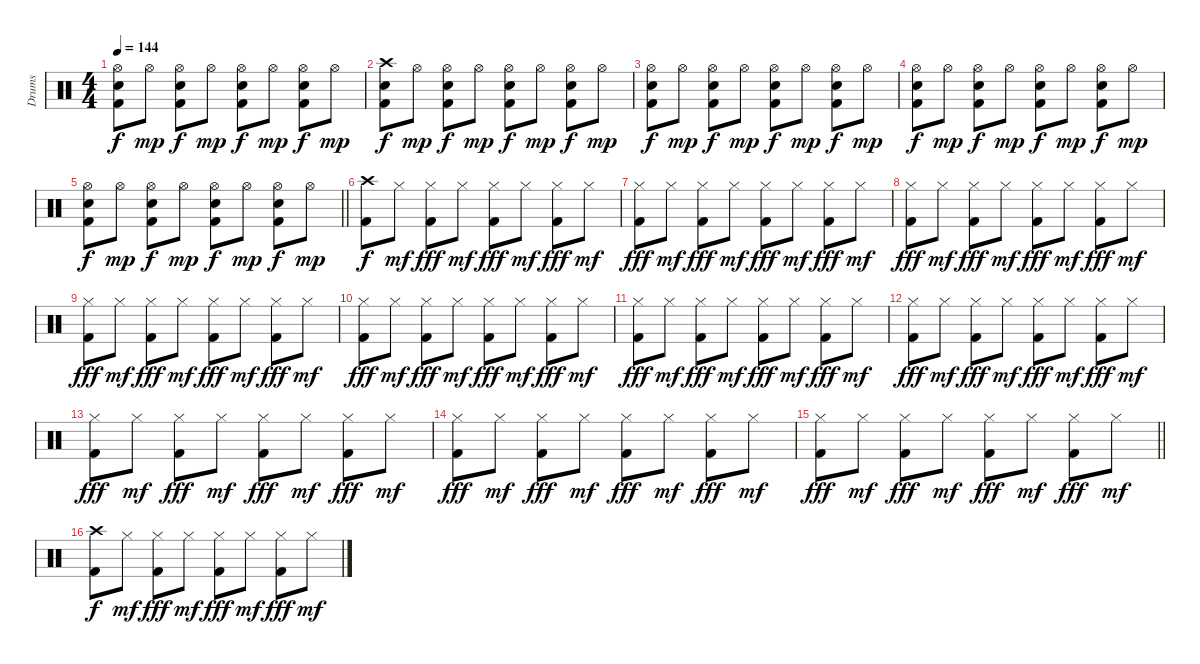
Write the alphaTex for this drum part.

\track ("Drums" "Drums") {instrument percussion}
\staff {score}
\articulation defaults
\ts (4 4)
\tempo 144
\clef neutral
\ks c
("Hi-Hat (open)" "Snare (hit) 2" "Kick (hit) 2").8{dy f} "Hi-Hat (open)".8{dy mp} ("Hi-Hat (open)" "Snare (hit) 2" "Kick (hit) 2").8{dy f} "Hi-Hat (open)".8{dy mp} ("Hi-Hat (open)" "Snare (hit) 2" "Kick (hit) 2").8{dy f} "Hi-Hat (open)".8{dy mp} ("Hi-Hat (open)" "Snare (hit) 2" "Kick (hit) 2").8{dy f} "Hi-Hat (open)".8{dy mp} |
("Crash high (hit)" "Snare (hit) 2" "Kick (hit) 2").8{dy f} "Hi-Hat (open)".8{dy mp} ("Hi-Hat (open)" "Snare (hit) 2" "Kick (hit) 2").8{dy f} "Hi-Hat (open)".8{dy mp} ("Hi-Hat (open)" "Snare (hit) 2" "Kick (hit) 2").8{dy f} "Hi-Hat (open)".8{dy mp} ("Hi-Hat (open)" "Snare (hit) 2" "Kick (hit) 2").8{dy f} "Hi-Hat (open)".8{dy mp} |
("Hi-Hat (open)" "Snare (hit) 2" "Kick (hit) 2").8{dy f} "Hi-Hat (open)".8{dy mp} ("Hi-Hat (open)" "Snare (hit) 2" "Kick (hit) 2").8{dy f} "Hi-Hat (open)".8{dy mp} ("Hi-Hat (open)" "Snare (hit) 2" "Kick (hit) 2").8{dy f} "Hi-Hat (open)".8{dy mp} ("Hi-Hat (open)" "Snare (hit) 2" "Kick (hit) 2").8{dy f} "Hi-Hat (open)".8{dy mp} |
("Hi-Hat (open)" "Snare (hit) 2" "Kick (hit) 2").8{dy f} "Hi-Hat (open)".8{dy mp} ("Hi-Hat (open)" "Snare (hit) 2" "Kick (hit) 2").8{dy f} "Hi-Hat (open)".8{dy mp} ("Hi-Hat (open)" "Snare (hit) 2" "Kick (hit) 2").8{dy f} "Hi-Hat (open)".8{dy mp} ("Hi-Hat (open)" "Snare (hit) 2" "Kick (hit) 2").8{dy f} "Hi-Hat (open)".8{dy mp} |
\barLineRight lightlight
("Hi-Hat (open)" "Snare (hit) 2" "Kick (hit) 2").8{dy f} "Hi-Hat (open)".8{dy mp} ("Hi-Hat (open)" "Snare (hit) 2" "Kick (hit) 2").8{dy f} "Hi-Hat (open)".8{dy mp} ("Hi-Hat (open)" "Snare (hit) 2" "Kick (hit) 2").8{dy f} "Hi-Hat (open)".8{dy mp} ("Hi-Hat (open)" "Snare (hit) 2" "Kick (hit) 2").8{dy f} "Hi-Hat (open)".8{dy mp} |
("Crash high (hit)" "Kick (hit) 2").8{dy f} "Hi-Hat (closed)".8{dy mf} ("Hi-Hat (closed)" "Kick (hit) 2").8{dy fff} "Hi-Hat (closed)".8{dy mf} ("Hi-Hat (closed)" "Kick (hit) 2").8{dy fff} "Hi-Hat (closed)".8{dy mf} ("Hi-Hat (closed)" "Kick (hit) 2").8{dy fff} "Hi-Hat (closed)".8{dy mf} |
("Hi-Hat (closed)" "Kick (hit) 2").8{dy fff} "Hi-Hat (closed)".8{dy mf} ("Hi-Hat (closed)" "Kick (hit) 2").8{dy fff} "Hi-Hat (closed)".8{dy mf} ("Hi-Hat (closed)" "Kick (hit) 2").8{dy fff} "Hi-Hat (closed)".8{dy mf} ("Hi-Hat (closed)" "Kick (hit) 2").8{dy fff} "Hi-Hat (closed)".8{dy mf} |
("Hi-Hat (closed)" "Kick (hit) 2").8{dy fff} "Hi-Hat (closed)".8{dy mf} ("Hi-Hat (closed)" "Kick (hit) 2").8{dy fff} "Hi-Hat (closed)".8{dy mf} ("Hi-Hat (closed)" "Kick (hit) 2").8{dy fff} "Hi-Hat (closed)".8{dy mf} ("Hi-Hat (closed)" "Kick (hit) 2").8{dy fff} "Hi-Hat (closed)".8{dy mf} |
("Hi-Hat (closed)" "Kick (hit) 2").8{dy fff} "Hi-Hat (closed)".8{dy mf} ("Hi-Hat (closed)" "Kick (hit) 2").8{dy fff} "Hi-Hat (closed)".8{dy mf} ("Hi-Hat (closed)" "Kick (hit) 2").8{dy fff} "Hi-Hat (closed)".8{dy mf} ("Hi-Hat (closed)" "Kick (hit) 2").8{dy fff} "Hi-Hat (closed)".8{dy mf} |
("Hi-Hat (closed)" "Kick (hit) 2").8{dy fff} "Hi-Hat (closed)".8{dy mf} ("Hi-Hat (closed)" "Kick (hit) 2").8{dy fff} "Hi-Hat (closed)".8{dy mf} ("Hi-Hat (closed)" "Kick (hit) 2").8{dy fff} "Hi-Hat (closed)".8{dy mf} ("Hi-Hat (closed)" "Kick (hit) 2").8{dy fff} "Hi-Hat (closed)".8{dy mf} |
("Hi-Hat (closed)" "Kick (hit) 2").8{dy fff} "Hi-Hat (closed)".8{dy mf} ("Hi-Hat (closed)" "Kick (hit) 2").8{dy fff} "Hi-Hat (closed)".8{dy mf} ("Hi-Hat (closed)" "Kick (hit) 2").8{dy fff} "Hi-Hat (closed)".8{dy mf} ("Hi-Hat (closed)" "Kick (hit) 2").8{dy fff} "Hi-Hat (closed)".8{dy mf} |
("Hi-Hat (closed)" "Kick (hit) 2").8{dy fff} "Hi-Hat (closed)".8{dy mf} ("Hi-Hat (closed)" "Kick (hit) 2").8{dy fff} "Hi-Hat (closed)".8{dy mf} ("Hi-Hat (closed)" "Kick (hit) 2").8{dy fff} "Hi-Hat (closed)".8{dy mf} ("Hi-Hat (closed)" "Kick (hit) 2").8{dy fff} "Hi-Hat (closed)".8{dy mf} |
("Hi-Hat (closed)" "Kick (hit) 2").8{dy fff} "Hi-Hat (closed)".8{dy mf} ("Hi-Hat (closed)" "Kick (hit) 2").8{dy fff} "Hi-Hat (closed)".8{dy mf} ("Hi-Hat (closed)" "Kick (hit) 2").8{dy fff} "Hi-Hat (closed)".8{dy mf} ("Hi-Hat (closed)" "Kick (hit) 2").8{dy fff} "Hi-Hat (closed)".8{dy mf} |
("Hi-Hat (closed)" "Kick (hit) 2").8{dy fff} "Hi-Hat (closed)".8{dy mf} ("Hi-Hat (closed)" "Kick (hit) 2").8{dy fff} "Hi-Hat (closed)".8{dy mf} ("Hi-Hat (closed)" "Kick (hit) 2").8{dy fff} "Hi-Hat (closed)".8{dy mf} ("Hi-Hat (closed)" "Kick (hit) 2").8{dy fff} "Hi-Hat (closed)".8{dy mf} |
\barLineRight lightlight
("Hi-Hat (closed)" "Kick (hit) 2").8{dy fff} "Hi-Hat (closed)".8{dy mf} ("Hi-Hat (closed)" "Kick (hit) 2").8{dy fff} "Hi-Hat (closed)".8{dy mf} ("Hi-Hat (closed)" "Kick (hit) 2").8{dy fff} "Hi-Hat (closed)".8{dy mf} ("Hi-Hat (closed)" "Kick (hit) 2").8{dy fff} "Hi-Hat (closed)".8{dy mf} |
("Crash high (hit)" "Kick (hit) 2").8{dy f} "Hi-Hat (closed)".8{dy mf} ("Hi-Hat (closed)" "Kick (hit) 2").8{dy fff} "Hi-Hat (closed)".8{dy mf} ("Hi-Hat (closed)" "Kick (hit) 2").8{dy fff} "Hi-Hat (closed)".8{dy mf} ("Hi-Hat (closed)" "Kick (hit) 2").8{dy fff} "Hi-Hat (closed)".8{dy mf}
